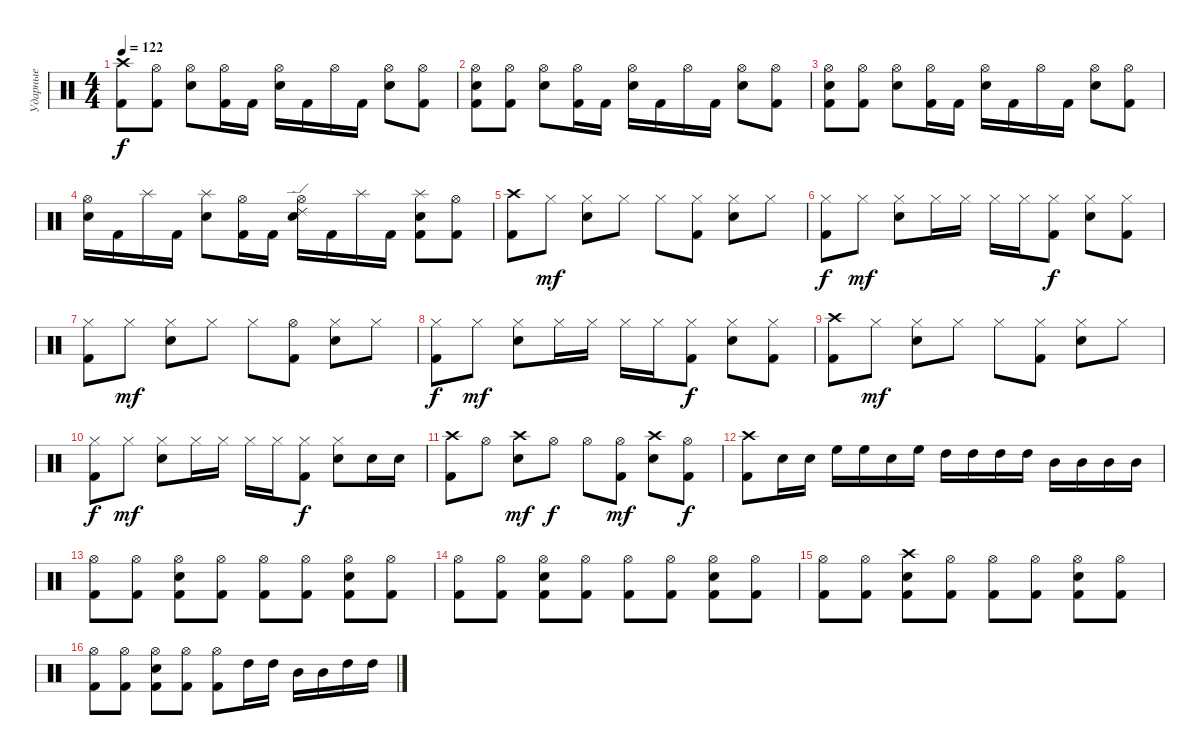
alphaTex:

\track ("Ударные" "Ударные") {instrument percussion}
\staff {score}
\articulation defaults
\ts (4 4)
\tempo 122
\clef neutral
\ks c
("Kick (hit) 2" "Crash high (hit)").8{dy f} ("Hi-Hat (open)" "Kick (hit) 2").8 ("Hi-Hat (open)" "Snare (hit) 2").8 ("Hi-Hat (open)" "Kick (hit) 2").16 "Kick (hit) 2".16 ("Hi-Hat (open)" "Snare (hit) 2").16 "Kick (hit) 2".16 "Hi-Hat (open)".16 "Kick (hit) 2".16 ("Hi-Hat (open)" "Snare (hit) 2").8 ("Hi-Hat (open)" "Kick (hit) 2").8 |
("Snare (hit) 2" "Hi-Hat (open)" "Kick (hit) 2").8 ("Hi-Hat (open)" "Kick (hit) 2").8 ("Hi-Hat (open)" "Snare (hit) 2").8 ("Hi-Hat (open)" "Kick (hit) 2").16 "Kick (hit) 2".16 ("Hi-Hat (open)" "Snare (hit) 2").16 "Kick (hit) 2".16 "Hi-Hat (open)".16 "Kick (hit) 2".16 ("Hi-Hat (open)" "Snare (hit) 2").8 ("Hi-Hat (open)" "Kick (hit) 2").8 |
("Snare (hit) 2" "Hi-Hat (open)" "Kick (hit) 2").8 ("Hi-Hat (open)" "Kick (hit) 2").8 ("Hi-Hat (open)" "Snare (hit) 2").8 ("Hi-Hat (open)" "Kick (hit) 2").16 "Kick (hit) 2".16 ("Hi-Hat (open)" "Snare (hit) 2").16 "Kick (hit) 2".16 "Hi-Hat (open)".16 "Kick (hit) 2".16 ("Hi-Hat (open)" "Snare (hit) 2").8 ("Hi-Hat (open)" "Kick (hit) 2").8 |
("Hi-Hat (open)" "Snare (hit) 2").16 "Kick (hit) 2".16 "Splash (hit)".16 "Kick (hit) 2".16 ("Splash (hit)" "Snare (hit) 2").8 ("Hi-Hat (open)" "Kick (hit) 2").16 "Kick (hit) 2".16 ("Hi-Hat (open)" "Snare (hit) 2" "Ride (edge) 2").16 "Kick (hit) 2".16 "Splash (hit)".16 "Kick (hit) 2".16 ("Splash (hit)" "Kick (hit) 2" "Snare (hit) 2").8 ("Hi-Hat (open)" "Kick (hit) 2").8 |
("Crash high (hit)" "Kick (hit) 2").8 "Hi-Hat (closed)".8{dy mf} ("Hi-Hat (closed)" "Snare (hit) 2").8 "Hi-Hat (closed)".8 "Hi-Hat (closed)".8 ("Hi-Hat (closed)" "Kick (hit) 2").8 ("Hi-Hat (closed)" "Snare (hit) 2").8 "Hi-Hat (closed)".8 |
("Hi-Hat (closed)" "Kick (hit) 2").8{dy f} "Hi-Hat (closed)".8{dy mf} ("Hi-Hat (closed)" "Snare (hit) 2").8 "Hi-Hat (closed)".16 "Hi-Hat (closed)".16 "Hi-Hat (closed)".16 "Hi-Hat (closed)".16 ("Hi-Hat (closed)" "Kick (hit) 2").8{dy f} ("Snare (hit) 2" "Hi-Hat (closed)").8 ("Kick (hit) 2" "Hi-Hat (closed)").8 |
("Hi-Hat (closed)" "Kick (hit) 2").8 "Hi-Hat (closed)".8{dy mf} ("Hi-Hat (closed)" "Snare (hit) 2").8 "Hi-Hat (closed)".8 "Hi-Hat (closed)".8 ("Hi-Hat (open)" "Kick (hit) 2").8 ("Hi-Hat (closed)" "Snare (hit) 2").8 "Hi-Hat (closed)".8 |
("Hi-Hat (closed)" "Kick (hit) 2").8{dy f} "Hi-Hat (closed)".8{dy mf} ("Hi-Hat (closed)" "Snare (hit) 2").8 "Hi-Hat (closed)".16 "Hi-Hat (closed)".16 "Hi-Hat (closed)".16 "Hi-Hat (closed)".16 ("Hi-Hat (closed)" "Kick (hit) 2").8{dy f} ("Snare (hit) 2" "Hi-Hat (closed)").8 ("Kick (hit) 2" "Hi-Hat (closed)").8 |
("Crash high (hit)" "Kick (hit) 2").8 "Hi-Hat (closed)".8{dy mf} ("Hi-Hat (closed)" "Snare (hit) 2").8 "Hi-Hat (closed)".8 "Hi-Hat (closed)".8 ("Hi-Hat (closed)" "Kick (hit) 2").8 ("Hi-Hat (closed)" "Snare (hit) 2").8 "Hi-Hat (closed)".8 |
("Hi-Hat (closed)" "Kick (hit) 2").8{dy f} "Hi-Hat (closed)".8{dy mf} ("Hi-Hat (closed)" "Snare (hit) 2").8 "Hi-Hat (closed)".16 "Hi-Hat (closed)".16 "Hi-Hat (closed)".16 "Hi-Hat (closed)".16 ("Hi-Hat (closed)" "Kick (hit) 2").8{dy f} ("Snare (hit) 2" "Hi-Hat (closed)").8 "Snare (hit) 2".16 "Snare (hit) 2".16 |
("Crash high (hit)" "Kick (hit) 2").8 "Hi-Hat (open)".8 ("Crash high (hit)" "Snare (hit) 2").8{dy mf} "Hi-Hat (open)".8{dy f} "Hi-Hat (open)".8 ("Hi-Hat (open)" "Kick (hit) 2").8{dy mf} ("Crash high (hit)" "Snare (hit) 2").8 ("Hi-Hat (open)" "Kick (hit) 2").8{dy f} |
("Kick (hit) 2" "Crash high (hit)").8 "Snare (hit) 2".16 "Snare (hit) 2".16 "High Floor Tom (hit)".16 "High Floor Tom (hit)".16 "Snare (hit) 2".16 "High Floor Tom (hit)".16 "High Tom (hit)".16 "High Tom (hit)".16 "High Tom (hit)".16 "High Tom (hit)".16 "Mid Tom (hit)".16 "Mid Tom (hit)".16 "Mid Tom (hit)".16 "Mid Tom (hit)".16 |
("Kick (hit) 2" "Hi-Hat (open)").8 ("Kick (hit) 2" "Hi-Hat (open)").8 ("Kick (hit) 2" "Snare (hit) 2" "Hi-Hat (open)").8 ("Kick (hit) 2" "Hi-Hat (open)").8 ("Kick (hit) 2" "Hi-Hat (open)").8 ("Kick (hit) 2" "Hi-Hat (open)").8 ("Kick (hit) 2" "Snare (hit) 2" "Hi-Hat (open)").8 ("Kick (hit) 2" "Hi-Hat (open)").8 |
("Kick (hit) 2" "Hi-Hat (open)").8 ("Kick (hit) 2" "Hi-Hat (open)").8 ("Kick (hit) 2" "Snare (hit) 2" "Hi-Hat (open)").8 ("Kick (hit) 2" "Hi-Hat (open)").8 ("Kick (hit) 2" "Hi-Hat (open)").8 ("Kick (hit) 2" "Hi-Hat (open)").8 ("Kick (hit) 2" "Snare (hit) 2" "Hi-Hat (open)").8 ("Kick (hit) 2" "Hi-Hat (open)").8 |
("Kick (hit) 2" "Hi-Hat (open)").8 ("Kick (hit) 2" "Hi-Hat (open)").8 ("Kick (hit) 2" "Snare (hit) 2" "Crash high (hit)").8 ("Kick (hit) 2" "Hi-Hat (open)").8 ("Kick (hit) 2" "Hi-Hat (open)").8 ("Kick (hit) 2" "Hi-Hat (open)").8 ("Kick (hit) 2" "Snare (hit) 2" "Hi-Hat (open)").8 ("Kick (hit) 2" "Hi-Hat (open)").8 |
("Kick (hit) 2" "Hi-Hat (open)").8 ("Kick (hit) 2" "Hi-Hat (open)").8 ("Kick (hit) 2" "Snare (hit) 2" "Hi-Hat (open)").8 ("Kick (hit) 2" "Hi-Hat (open)").8 ("Kick (hit) 2" "Hi-Hat (open)").8 "High Tom (hit)".16 "High Tom (hit)".16 "Mid Tom (hit)".16 "Mid Tom (hit)".16 "High Tom (hit)".16 "High Tom (hit)".16
